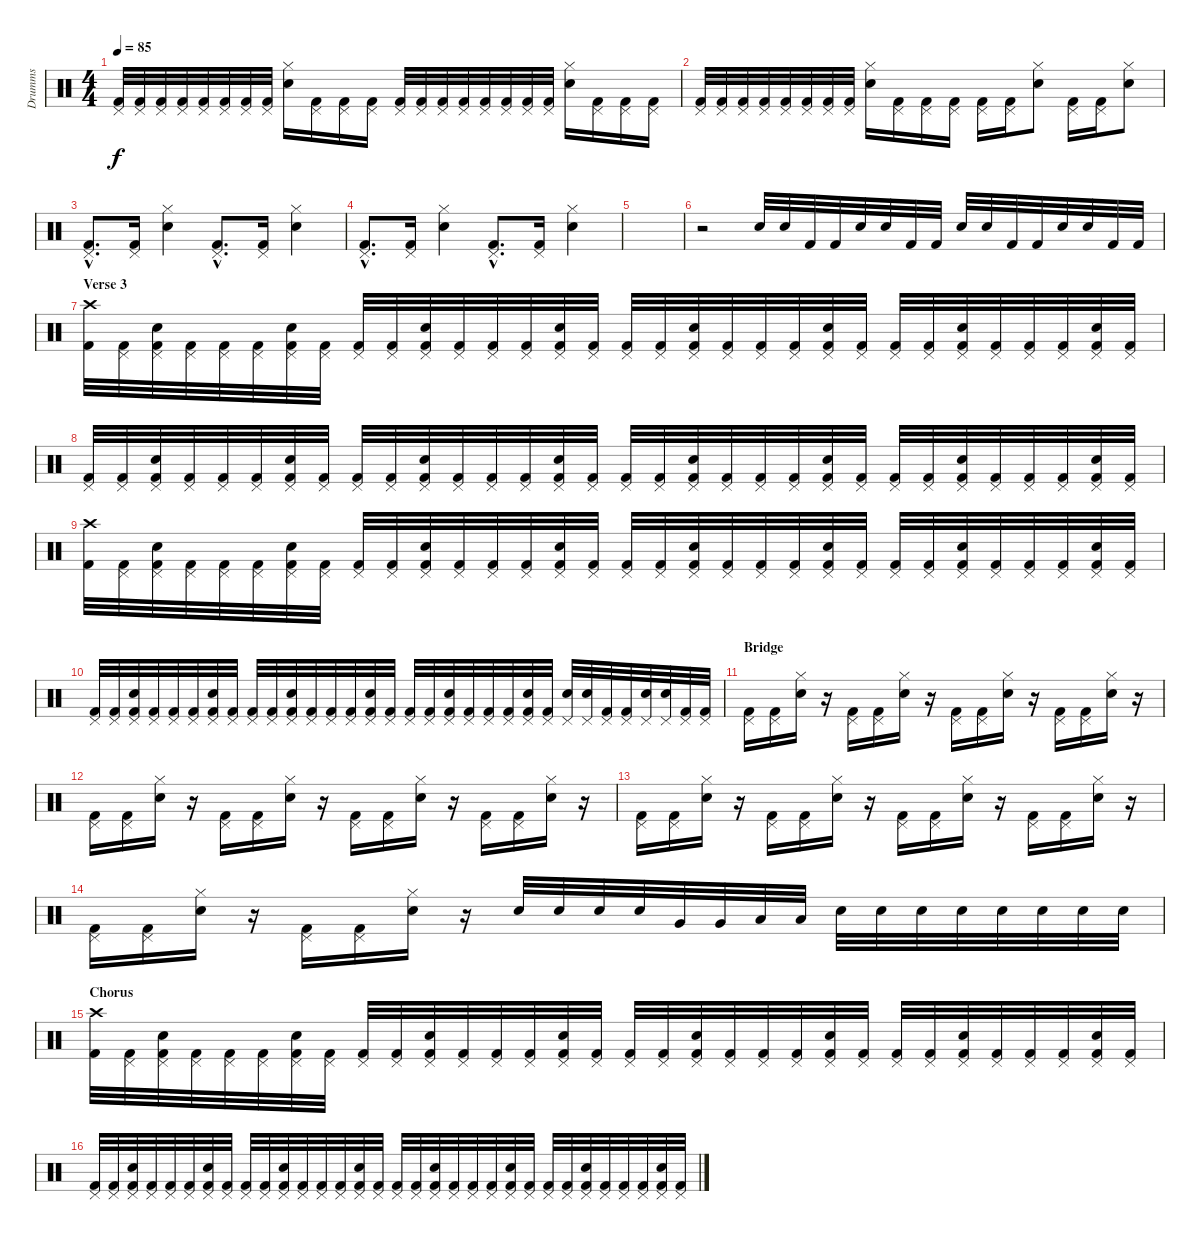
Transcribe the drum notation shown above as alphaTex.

\track ("Drumms" "Drumms") {instrument percussion}
\staff {score}
\articulation defaults
\ts (4 4)
\tempo 85
\clef neutral
\ks c
("Pedal Hi-Hat (hit)" "Kick (hit) 2").32{dy f} ("Pedal Hi-Hat (hit)" "Kick (hit) 2").32 ("Pedal Hi-Hat (hit)" "Kick (hit) 2").32 ("Pedal Hi-Hat (hit)" "Kick (hit) 2").32 ("Pedal Hi-Hat (hit)" "Kick (hit) 2").32 ("Pedal Hi-Hat (hit)" "Kick (hit) 2").32 ("Pedal Hi-Hat (hit)" "Kick (hit) 2").32 ("Pedal Hi-Hat (hit)" "Kick (hit) 2").32 ("Hi-Hat (closed)" "Snare (hit) 2").16 ("Pedal Hi-Hat (hit)" "Kick (hit) 2").16 ("Pedal Hi-Hat (hit)" "Kick (hit) 2").16 ("Pedal Hi-Hat (hit)" "Kick (hit) 2").16 ("Pedal Hi-Hat (hit)" "Kick (hit) 2").32 ("Pedal Hi-Hat (hit)" "Kick (hit) 2").32 ("Pedal Hi-Hat (hit)" "Kick (hit) 2").32 ("Pedal Hi-Hat (hit)" "Kick (hit) 2").32 ("Pedal Hi-Hat (hit)" "Kick (hit) 2").32 ("Pedal Hi-Hat (hit)" "Kick (hit) 2").32 ("Pedal Hi-Hat (hit)" "Kick (hit) 2").32 ("Pedal Hi-Hat (hit)" "Kick (hit) 2").32 ("Hi-Hat (closed)" "Snare (hit) 2").16 ("Pedal Hi-Hat (hit)" "Kick (hit) 2").16 ("Pedal Hi-Hat (hit)" "Kick (hit) 2").16 ("Pedal Hi-Hat (hit)" "Kick (hit) 2").16 |
("Pedal Hi-Hat (hit)" "Kick (hit) 2").32 ("Pedal Hi-Hat (hit)" "Kick (hit) 2").32 ("Pedal Hi-Hat (hit)" "Kick (hit) 2").32 ("Pedal Hi-Hat (hit)" "Kick (hit) 2").32 ("Pedal Hi-Hat (hit)" "Kick (hit) 2").32 ("Pedal Hi-Hat (hit)" "Kick (hit) 2").32 ("Pedal Hi-Hat (hit)" "Kick (hit) 2").32 ("Pedal Hi-Hat (hit)" "Kick (hit) 2").32 ("Hi-Hat (closed)" "Snare (hit) 2").16 ("Pedal Hi-Hat (hit)" "Kick (hit) 2").16 ("Pedal Hi-Hat (hit)" "Kick (hit) 2").16 ("Pedal Hi-Hat (hit)" "Kick (hit) 2").16 ("Pedal Hi-Hat (hit)" "Kick (hit) 2").16 ("Pedal Hi-Hat (hit)" "Kick (hit) 2").16 ("Hi-Hat (closed)" "Snare (hit) 2").8 ("Pedal Hi-Hat (hit)" "Kick (hit) 2").16 ("Pedal Hi-Hat (hit)" "Kick (hit) 2").16 ("Hi-Hat (closed)" "Snare (hit) 2").8 |
("Pedal Hi-Hat (hit)"{hac} "Kick (hit) 2"{hac}).8{d} ("Pedal Hi-Hat (hit)" "Kick (hit) 2").16 ("Hi-Hat (closed)" "Snare (hit) 2").4 ("Pedal Hi-Hat (hit)"{hac} "Kick (hit) 2"{hac}).8{d} ("Pedal Hi-Hat (hit)" "Kick (hit) 2").16 ("Hi-Hat (closed)" "Snare (hit) 2").4 |
("Pedal Hi-Hat (hit)"{hac} "Kick (hit) 2"{hac}).8{d} ("Pedal Hi-Hat (hit)" "Kick (hit) 2").16 ("Hi-Hat (closed)" "Snare (hit) 2").4 ("Pedal Hi-Hat (hit)"{hac} "Kick (hit) 2"{hac}).8{d} ("Pedal Hi-Hat (hit)" "Kick (hit) 2").16 ("Hi-Hat (closed)" "Snare (hit) 2").4 |
|
r.2 "Snare (hit) 2".32 "Snare (hit) 2".32 "Kick (hit) 2".32 "Kick (hit) 2".32 "Snare (hit) 2".32 "Snare (hit) 2".32 "Kick (hit) 2".32 "Kick (hit) 2".32 "Snare (hit) 2".32 "Snare (hit) 2".32 "Kick (hit) 2".32 "Kick (hit) 2".32 "Snare (hit) 2".32 "Snare (hit) 2".32 "Kick (hit) 2".32 "Kick (hit) 2".32 |
\section ("" "Verse 3")
("Crash high (hit)" "Kick (hit) 2").32 ("Pedal Hi-Hat (hit)" "Kick (hit) 2").32 ("Pedal Hi-Hat (hit)" "Snare (hit) 2" "Kick (hit) 2").32 ("Pedal Hi-Hat (hit)" "Kick (hit) 2").32 ("Pedal Hi-Hat (hit)" "Kick (hit) 2").32 ("Pedal Hi-Hat (hit)" "Kick (hit) 2").32 ("Pedal Hi-Hat (hit)" "Snare (hit) 2" "Kick (hit) 2").32 ("Pedal Hi-Hat (hit)" "Kick (hit) 2").32 ("Pedal Hi-Hat (hit)" "Kick (hit) 2").32 ("Pedal Hi-Hat (hit)" "Kick (hit) 2").32 ("Pedal Hi-Hat (hit)" "Snare (hit) 2" "Kick (hit) 2").32 ("Pedal Hi-Hat (hit)" "Kick (hit) 2").32 ("Pedal Hi-Hat (hit)" "Kick (hit) 2").32 ("Pedal Hi-Hat (hit)" "Kick (hit) 2").32 ("Pedal Hi-Hat (hit)" "Snare (hit) 2" "Kick (hit) 2").32 ("Pedal Hi-Hat (hit)" "Kick (hit) 2").32 ("Pedal Hi-Hat (hit)" "Kick (hit) 2").32 ("Pedal Hi-Hat (hit)" "Kick (hit) 2").32 ("Pedal Hi-Hat (hit)" "Snare (hit) 2" "Kick (hit) 2").32 ("Pedal Hi-Hat (hit)" "Kick (hit) 2").32 ("Pedal Hi-Hat (hit)" "Kick (hit) 2").32 ("Pedal Hi-Hat (hit)" "Kick (hit) 2").32 ("Pedal Hi-Hat (hit)" "Snare (hit) 2" "Kick (hit) 2").32 ("Pedal Hi-Hat (hit)" "Kick (hit) 2").32 ("Pedal Hi-Hat (hit)" "Kick (hit) 2").32 ("Pedal Hi-Hat (hit)" "Kick (hit) 2").32 ("Pedal Hi-Hat (hit)" "Snare (hit) 2" "Kick (hit) 2").32 ("Pedal Hi-Hat (hit)" "Kick (hit) 2").32 ("Pedal Hi-Hat (hit)" "Kick (hit) 2").32 ("Pedal Hi-Hat (hit)" "Kick (hit) 2").32 ("Pedal Hi-Hat (hit)" "Snare (hit) 2" "Kick (hit) 2").32 ("Pedal Hi-Hat (hit)" "Kick (hit) 2").32 |
("Pedal Hi-Hat (hit)" "Kick (hit) 2").32 ("Pedal Hi-Hat (hit)" "Kick (hit) 2").32 ("Pedal Hi-Hat (hit)" "Snare (hit) 2" "Kick (hit) 2").32 ("Pedal Hi-Hat (hit)" "Kick (hit) 2").32 ("Pedal Hi-Hat (hit)" "Kick (hit) 2").32 ("Pedal Hi-Hat (hit)" "Kick (hit) 2").32 ("Pedal Hi-Hat (hit)" "Snare (hit) 2" "Kick (hit) 2").32 ("Pedal Hi-Hat (hit)" "Kick (hit) 2").32 ("Pedal Hi-Hat (hit)" "Kick (hit) 2").32 ("Pedal Hi-Hat (hit)" "Kick (hit) 2").32 ("Pedal Hi-Hat (hit)" "Snare (hit) 2" "Kick (hit) 2").32 ("Pedal Hi-Hat (hit)" "Kick (hit) 2").32 ("Pedal Hi-Hat (hit)" "Kick (hit) 2").32 ("Pedal Hi-Hat (hit)" "Kick (hit) 2").32 ("Pedal Hi-Hat (hit)" "Snare (hit) 2" "Kick (hit) 2").32 ("Pedal Hi-Hat (hit)" "Kick (hit) 2").32 ("Pedal Hi-Hat (hit)" "Kick (hit) 2").32 ("Pedal Hi-Hat (hit)" "Kick (hit) 2").32 ("Pedal Hi-Hat (hit)" "Snare (hit) 2" "Kick (hit) 2").32 ("Pedal Hi-Hat (hit)" "Kick (hit) 2").32 ("Pedal Hi-Hat (hit)" "Kick (hit) 2").32 ("Pedal Hi-Hat (hit)" "Kick (hit) 2").32 ("Pedal Hi-Hat (hit)" "Snare (hit) 2" "Kick (hit) 2").32 ("Pedal Hi-Hat (hit)" "Kick (hit) 2").32 ("Pedal Hi-Hat (hit)" "Kick (hit) 2").32 ("Pedal Hi-Hat (hit)" "Kick (hit) 2").32 ("Pedal Hi-Hat (hit)" "Snare (hit) 2" "Kick (hit) 2").32 ("Pedal Hi-Hat (hit)" "Kick (hit) 2").32 ("Pedal Hi-Hat (hit)" "Kick (hit) 2").32 ("Pedal Hi-Hat (hit)" "Kick (hit) 2").32 ("Pedal Hi-Hat (hit)" "Snare (hit) 2" "Kick (hit) 2").32 ("Pedal Hi-Hat (hit)" "Kick (hit) 2").32 |
("Crash high (hit)" "Kick (hit) 2").32 ("Pedal Hi-Hat (hit)" "Kick (hit) 2").32 ("Pedal Hi-Hat (hit)" "Snare (hit) 2" "Kick (hit) 2").32 ("Pedal Hi-Hat (hit)" "Kick (hit) 2").32 ("Pedal Hi-Hat (hit)" "Kick (hit) 2").32 ("Pedal Hi-Hat (hit)" "Kick (hit) 2").32 ("Pedal Hi-Hat (hit)" "Snare (hit) 2" "Kick (hit) 2").32 ("Pedal Hi-Hat (hit)" "Kick (hit) 2").32 ("Pedal Hi-Hat (hit)" "Kick (hit) 2").32 ("Pedal Hi-Hat (hit)" "Kick (hit) 2").32 ("Pedal Hi-Hat (hit)" "Snare (hit) 2" "Kick (hit) 2").32 ("Pedal Hi-Hat (hit)" "Kick (hit) 2").32 ("Pedal Hi-Hat (hit)" "Kick (hit) 2").32 ("Pedal Hi-Hat (hit)" "Kick (hit) 2").32 ("Pedal Hi-Hat (hit)" "Snare (hit) 2" "Kick (hit) 2").32 ("Pedal Hi-Hat (hit)" "Kick (hit) 2").32 ("Pedal Hi-Hat (hit)" "Kick (hit) 2").32 ("Pedal Hi-Hat (hit)" "Kick (hit) 2").32 ("Pedal Hi-Hat (hit)" "Snare (hit) 2" "Kick (hit) 2").32 ("Pedal Hi-Hat (hit)" "Kick (hit) 2").32 ("Pedal Hi-Hat (hit)" "Kick (hit) 2").32 ("Pedal Hi-Hat (hit)" "Kick (hit) 2").32 ("Pedal Hi-Hat (hit)" "Snare (hit) 2" "Kick (hit) 2").32 ("Pedal Hi-Hat (hit)" "Kick (hit) 2").32 ("Pedal Hi-Hat (hit)" "Kick (hit) 2").32 ("Pedal Hi-Hat (hit)" "Kick (hit) 2").32 ("Pedal Hi-Hat (hit)" "Snare (hit) 2" "Kick (hit) 2").32 ("Pedal Hi-Hat (hit)" "Kick (hit) 2").32 ("Pedal Hi-Hat (hit)" "Kick (hit) 2").32 ("Pedal Hi-Hat (hit)" "Kick (hit) 2").32 ("Pedal Hi-Hat (hit)" "Snare (hit) 2" "Kick (hit) 2").32 ("Pedal Hi-Hat (hit)" "Kick (hit) 2").32 |
("Pedal Hi-Hat (hit)" "Kick (hit) 2").32 ("Pedal Hi-Hat (hit)" "Kick (hit) 2").32 ("Pedal Hi-Hat (hit)" "Snare (hit) 2" "Kick (hit) 2").32 ("Pedal Hi-Hat (hit)" "Kick (hit) 2").32 ("Pedal Hi-Hat (hit)" "Kick (hit) 2").32 ("Pedal Hi-Hat (hit)" "Kick (hit) 2").32 ("Pedal Hi-Hat (hit)" "Snare (hit) 2" "Kick (hit) 2").32 ("Pedal Hi-Hat (hit)" "Kick (hit) 2").32 ("Pedal Hi-Hat (hit)" "Kick (hit) 2").32 ("Pedal Hi-Hat (hit)" "Kick (hit) 2").32 ("Pedal Hi-Hat (hit)" "Snare (hit) 2" "Kick (hit) 2").32 ("Pedal Hi-Hat (hit)" "Kick (hit) 2").32 ("Pedal Hi-Hat (hit)" "Kick (hit) 2").32 ("Pedal Hi-Hat (hit)" "Kick (hit) 2").32 ("Pedal Hi-Hat (hit)" "Snare (hit) 2" "Kick (hit) 2").32 ("Pedal Hi-Hat (hit)" "Kick (hit) 2").32 ("Pedal Hi-Hat (hit)" "Kick (hit) 2").32 ("Pedal Hi-Hat (hit)" "Kick (hit) 2").32 ("Pedal Hi-Hat (hit)" "Snare (hit) 2" "Kick (hit) 2").32 ("Pedal Hi-Hat (hit)" "Kick (hit) 2").32 ("Pedal Hi-Hat (hit)" "Kick (hit) 2").32 ("Pedal Hi-Hat (hit)" "Kick (hit) 2").32 ("Pedal Hi-Hat (hit)" "Snare (hit) 2" "Kick (hit) 2").32 ("Pedal Hi-Hat (hit)" "Kick (hit) 2").32 ("Pedal Hi-Hat (hit)" "Snare (hit) 2").32 ("Pedal Hi-Hat (hit)" "Snare (hit) 2").32 ("Pedal Hi-Hat (hit)" "Kick (hit) 2").32 ("Pedal Hi-Hat (hit)" "Kick (hit) 2").32 ("Pedal Hi-Hat (hit)" "Snare (hit) 2").32 ("Pedal Hi-Hat (hit)" "Snare (hit) 2").32 ("Pedal Hi-Hat (hit)" "Kick (hit) 2").32 ("Pedal Hi-Hat (hit)" "Kick (hit) 2").32 |
\section ("" "Bridge")
("Pedal Hi-Hat (hit)" "Kick (hit) 2").16 ("Pedal Hi-Hat (hit)" "Kick (hit) 2").16 ("Hi-Hat (closed)" "Snare (hit) 2").16 r.16 ("Pedal Hi-Hat (hit)" "Kick (hit) 2").16 ("Pedal Hi-Hat (hit)" "Kick (hit) 2").16 ("Hi-Hat (closed)" "Snare (hit) 2").16 r.16 ("Pedal Hi-Hat (hit)" "Kick (hit) 2").16 ("Pedal Hi-Hat (hit)" "Kick (hit) 2").16 ("Hi-Hat (closed)" "Snare (hit) 2").16 r.16 ("Pedal Hi-Hat (hit)" "Kick (hit) 2").16 ("Pedal Hi-Hat (hit)" "Kick (hit) 2").16 ("Hi-Hat (closed)" "Snare (hit) 2").16 r.16 |
("Pedal Hi-Hat (hit)" "Kick (hit) 2").16 ("Pedal Hi-Hat (hit)" "Kick (hit) 2").16 ("Hi-Hat (closed)" "Snare (hit) 2").16 r.16 ("Pedal Hi-Hat (hit)" "Kick (hit) 2").16 ("Pedal Hi-Hat (hit)" "Kick (hit) 2").16 ("Hi-Hat (closed)" "Snare (hit) 2").16 r.16 ("Pedal Hi-Hat (hit)" "Kick (hit) 2").16 ("Pedal Hi-Hat (hit)" "Kick (hit) 2").16 ("Hi-Hat (closed)" "Snare (hit) 2").16 r.16 ("Pedal Hi-Hat (hit)" "Kick (hit) 2").16 ("Pedal Hi-Hat (hit)" "Kick (hit) 2").16 ("Hi-Hat (closed)" "Snare (hit) 2").16 r.16 |
("Pedal Hi-Hat (hit)" "Kick (hit) 2").16 ("Pedal Hi-Hat (hit)" "Kick (hit) 2").16 ("Hi-Hat (closed)" "Snare (hit) 2").16 r.16 ("Pedal Hi-Hat (hit)" "Kick (hit) 2").16 ("Pedal Hi-Hat (hit)" "Kick (hit) 2").16 ("Hi-Hat (closed)" "Snare (hit) 2").16 r.16 ("Pedal Hi-Hat (hit)" "Kick (hit) 2").16 ("Pedal Hi-Hat (hit)" "Kick (hit) 2").16 ("Hi-Hat (closed)" "Snare (hit) 2").16 r.16 ("Pedal Hi-Hat (hit)" "Kick (hit) 2").16 ("Pedal Hi-Hat (hit)" "Kick (hit) 2").16 ("Hi-Hat (closed)" "Snare (hit) 2").16 r.16 |
("Pedal Hi-Hat (hit)" "Kick (hit) 2").16 ("Pedal Hi-Hat (hit)" "Kick (hit) 2").16 ("Hi-Hat (closed)" "Snare (hit) 2").16 r.16 ("Pedal Hi-Hat (hit)" "Kick (hit) 2").16 ("Pedal Hi-Hat (hit)" "Kick (hit) 2").16 ("Hi-Hat (closed)" "Snare (hit) 2").16 r.16 "Snare (hit) 2".32 "Snare (hit) 2".32 "Snare (hit) 2".32 "Snare (hit) 2".32 "Very Low Tom (hit)".32 "Very Low Tom (hit)".32 "Low Floor Tom (hit)".32 "Low Floor Tom (hit)".32 "Snare (hit) 2".32 "Snare (hit) 2".32 "Snare (hit) 2".32 "Snare (hit) 2".32 "Snare (hit) 2".32 "Snare (hit) 2".32 "Snare (hit) 2".32 "Snare (hit) 2".32 |
\section ("" "Chorus")
("Crash high (hit)" "Kick (hit) 2").32 ("Pedal Hi-Hat (hit)" "Kick (hit) 2").32 ("Pedal Hi-Hat (hit)" "Snare (hit) 2" "Kick (hit) 2").32 ("Pedal Hi-Hat (hit)" "Kick (hit) 2").32 ("Pedal Hi-Hat (hit)" "Kick (hit) 2").32 ("Pedal Hi-Hat (hit)" "Kick (hit) 2").32 ("Pedal Hi-Hat (hit)" "Snare (hit) 2" "Kick (hit) 2").32 ("Pedal Hi-Hat (hit)" "Kick (hit) 2").32 ("Pedal Hi-Hat (hit)" "Kick (hit) 2").32 ("Pedal Hi-Hat (hit)" "Kick (hit) 2").32 ("Pedal Hi-Hat (hit)" "Snare (hit) 2" "Kick (hit) 2").32 ("Pedal Hi-Hat (hit)" "Kick (hit) 2").32 ("Pedal Hi-Hat (hit)" "Kick (hit) 2").32 ("Pedal Hi-Hat (hit)" "Kick (hit) 2").32 ("Pedal Hi-Hat (hit)" "Snare (hit) 2" "Kick (hit) 2").32 ("Pedal Hi-Hat (hit)" "Kick (hit) 2").32 ("Pedal Hi-Hat (hit)" "Kick (hit) 2").32 ("Pedal Hi-Hat (hit)" "Kick (hit) 2").32 ("Pedal Hi-Hat (hit)" "Snare (hit) 2" "Kick (hit) 2").32 ("Pedal Hi-Hat (hit)" "Kick (hit) 2").32 ("Pedal Hi-Hat (hit)" "Kick (hit) 2").32 ("Pedal Hi-Hat (hit)" "Kick (hit) 2").32 ("Pedal Hi-Hat (hit)" "Snare (hit) 2" "Kick (hit) 2").32 ("Pedal Hi-Hat (hit)" "Kick (hit) 2").32 ("Pedal Hi-Hat (hit)" "Kick (hit) 2").32 ("Pedal Hi-Hat (hit)" "Kick (hit) 2").32 ("Pedal Hi-Hat (hit)" "Snare (hit) 2" "Kick (hit) 2").32 ("Pedal Hi-Hat (hit)" "Kick (hit) 2").32 ("Pedal Hi-Hat (hit)" "Kick (hit) 2").32 ("Pedal Hi-Hat (hit)" "Kick (hit) 2").32 ("Pedal Hi-Hat (hit)" "Snare (hit) 2" "Kick (hit) 2").32 ("Pedal Hi-Hat (hit)" "Kick (hit) 2").32 |
("Pedal Hi-Hat (hit)" "Kick (hit) 2").32 ("Pedal Hi-Hat (hit)" "Kick (hit) 2").32 ("Pedal Hi-Hat (hit)" "Snare (hit) 2" "Kick (hit) 2").32 ("Pedal Hi-Hat (hit)" "Kick (hit) 2").32 ("Pedal Hi-Hat (hit)" "Kick (hit) 2").32 ("Pedal Hi-Hat (hit)" "Kick (hit) 2").32 ("Pedal Hi-Hat (hit)" "Snare (hit) 2" "Kick (hit) 2").32 ("Pedal Hi-Hat (hit)" "Kick (hit) 2").32 ("Pedal Hi-Hat (hit)" "Kick (hit) 2").32 ("Pedal Hi-Hat (hit)" "Kick (hit) 2").32 ("Pedal Hi-Hat (hit)" "Snare (hit) 2" "Kick (hit) 2").32 ("Pedal Hi-Hat (hit)" "Kick (hit) 2").32 ("Pedal Hi-Hat (hit)" "Kick (hit) 2").32 ("Pedal Hi-Hat (hit)" "Kick (hit) 2").32 ("Pedal Hi-Hat (hit)" "Snare (hit) 2" "Kick (hit) 2").32 ("Pedal Hi-Hat (hit)" "Kick (hit) 2").32 ("Pedal Hi-Hat (hit)" "Kick (hit) 2").32 ("Pedal Hi-Hat (hit)" "Kick (hit) 2").32 ("Pedal Hi-Hat (hit)" "Snare (hit) 2" "Kick (hit) 2").32 ("Pedal Hi-Hat (hit)" "Kick (hit) 2").32 ("Pedal Hi-Hat (hit)" "Kick (hit) 2").32 ("Pedal Hi-Hat (hit)" "Kick (hit) 2").32 ("Pedal Hi-Hat (hit)" "Snare (hit) 2" "Kick (hit) 2").32 ("Pedal Hi-Hat (hit)" "Kick (hit) 2").32 ("Pedal Hi-Hat (hit)" "Kick (hit) 2").32 ("Pedal Hi-Hat (hit)" "Kick (hit) 2").32 ("Pedal Hi-Hat (hit)" "Snare (hit) 2" "Kick (hit) 2").32 ("Pedal Hi-Hat (hit)" "Kick (hit) 2").32 ("Pedal Hi-Hat (hit)" "Kick (hit) 2").32 ("Pedal Hi-Hat (hit)" "Kick (hit) 2").32 ("Pedal Hi-Hat (hit)" "Snare (hit) 2" "Kick (hit) 2").32 ("Pedal Hi-Hat (hit)" "Kick (hit) 2").32
